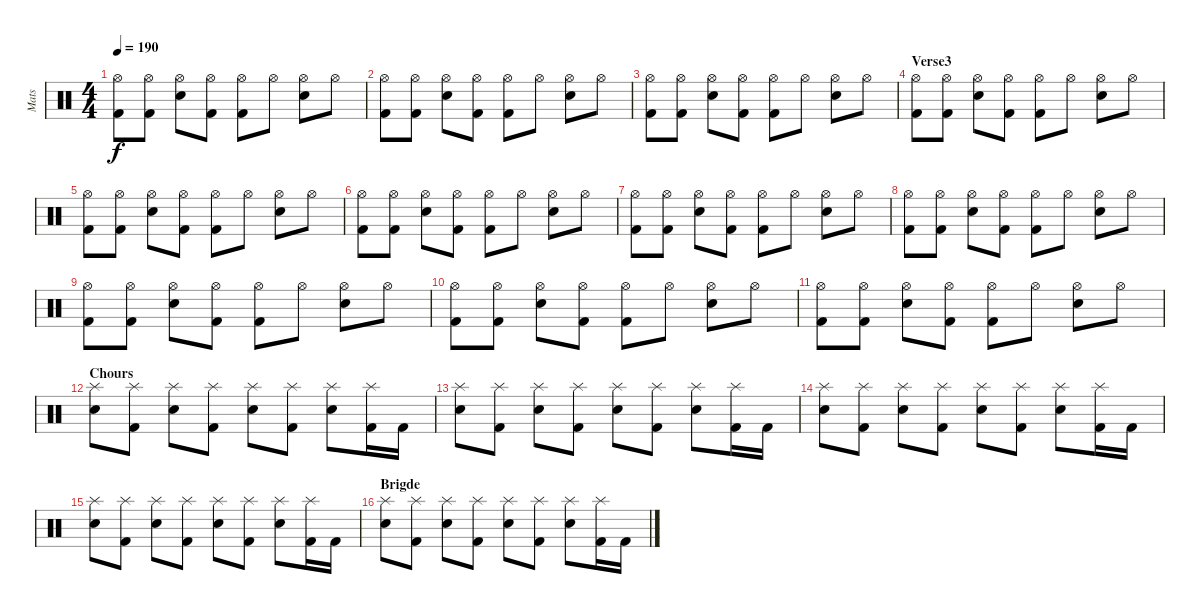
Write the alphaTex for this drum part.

\track ("Mats" "Mats") {instrument percussion}
\staff {score}
\articulation defaults
\ts (4 4)
\tempo 190
\clef neutral
\ks c
("Hi-Hat (open)" "Kick (hit) 2").8{dy f} ("Hi-Hat (open)" "Kick (hit) 2").8 ("Hi-Hat (open)" "Snare (hit) 2").8 ("Hi-Hat (open)" "Kick (hit) 2").8 ("Hi-Hat (open)" "Kick (hit) 2").8 "Hi-Hat (open)".8 ("Hi-Hat (open)" "Snare (hit) 2").8 "Hi-Hat (open)".8 |
("Hi-Hat (open)" "Kick (hit) 2").8 ("Hi-Hat (open)" "Kick (hit) 2").8 ("Hi-Hat (open)" "Snare (hit) 2").8 ("Hi-Hat (open)" "Kick (hit) 2").8 ("Hi-Hat (open)" "Kick (hit) 2").8 "Hi-Hat (open)".8 ("Hi-Hat (open)" "Snare (hit) 2").8 "Hi-Hat (open)".8 |
("Hi-Hat (open)" "Kick (hit) 2").8 ("Hi-Hat (open)" "Kick (hit) 2").8 ("Hi-Hat (open)" "Snare (hit) 2").8 ("Hi-Hat (open)" "Kick (hit) 2").8 ("Hi-Hat (open)" "Kick (hit) 2").8 "Hi-Hat (open)".8 ("Hi-Hat (open)" "Snare (hit) 2").8 "Hi-Hat (open)".8 |
\section ("" "Verse3")
("Hi-Hat (open)" "Kick (hit) 2").8 ("Hi-Hat (open)" "Kick (hit) 2").8 ("Hi-Hat (open)" "Snare (hit) 2").8 ("Hi-Hat (open)" "Kick (hit) 2").8 ("Hi-Hat (open)" "Kick (hit) 2").8 "Hi-Hat (open)".8 ("Hi-Hat (open)" "Snare (hit) 2").8 "Hi-Hat (open)".8 |
("Hi-Hat (open)" "Kick (hit) 2").8 ("Hi-Hat (open)" "Kick (hit) 2").8 ("Hi-Hat (open)" "Snare (hit) 2").8 ("Hi-Hat (open)" "Kick (hit) 2").8 ("Hi-Hat (open)" "Kick (hit) 2").8 "Hi-Hat (open)".8 ("Hi-Hat (open)" "Snare (hit) 2").8 "Hi-Hat (open)".8 |
("Hi-Hat (open)" "Kick (hit) 2").8 ("Hi-Hat (open)" "Kick (hit) 2").8 ("Hi-Hat (open)" "Snare (hit) 2").8 ("Hi-Hat (open)" "Kick (hit) 2").8 ("Hi-Hat (open)" "Kick (hit) 2").8 "Hi-Hat (open)".8 ("Hi-Hat (open)" "Snare (hit) 2").8 "Hi-Hat (open)".8 |
("Hi-Hat (open)" "Kick (hit) 2").8 ("Hi-Hat (open)" "Kick (hit) 2").8 ("Hi-Hat (open)" "Snare (hit) 2").8 ("Hi-Hat (open)" "Kick (hit) 2").8 ("Hi-Hat (open)" "Kick (hit) 2").8 "Hi-Hat (open)".8 ("Hi-Hat (open)" "Snare (hit) 2").8 "Hi-Hat (open)".8 |
("Hi-Hat (open)" "Kick (hit) 2").8 ("Hi-Hat (open)" "Kick (hit) 2").8 ("Hi-Hat (open)" "Snare (hit) 2").8 ("Hi-Hat (open)" "Kick (hit) 2").8 ("Hi-Hat (open)" "Kick (hit) 2").8 "Hi-Hat (open)".8 ("Hi-Hat (open)" "Snare (hit) 2").8 "Hi-Hat (open)".8 |
("Hi-Hat (open)" "Kick (hit) 2").8 ("Hi-Hat (open)" "Kick (hit) 2").8 ("Hi-Hat (open)" "Snare (hit) 2").8 ("Hi-Hat (open)" "Kick (hit) 2").8 ("Hi-Hat (open)" "Kick (hit) 2").8 "Hi-Hat (open)".8 ("Hi-Hat (open)" "Snare (hit) 2").8 "Hi-Hat (open)".8 |
("Hi-Hat (open)" "Kick (hit) 2").8 ("Hi-Hat (open)" "Kick (hit) 2").8 ("Hi-Hat (open)" "Snare (hit) 2").8 ("Hi-Hat (open)" "Kick (hit) 2").8 ("Hi-Hat (open)" "Kick (hit) 2").8 "Hi-Hat (open)".8 ("Hi-Hat (open)" "Snare (hit) 2").8 "Hi-Hat (open)".8 |
("Hi-Hat (open)" "Kick (hit) 2").8 ("Hi-Hat (open)" "Kick (hit) 2").8 ("Hi-Hat (open)" "Snare (hit) 2").8 ("Hi-Hat (open)" "Kick (hit) 2").8 ("Hi-Hat (open)" "Kick (hit) 2").8 "Hi-Hat (open)".8 ("Hi-Hat (open)" "Snare (hit) 2").8 "Hi-Hat (open)".8 |
\section ("" "Chours")
("Splash (hit)" "Snare (hit) 2").8 ("Splash (hit)" "Kick (hit) 2").8 ("Splash (hit)" "Snare (hit) 2").8 ("Splash (hit)" "Kick (hit) 2").8 ("Splash (hit)" "Snare (hit) 2").8 ("Splash (hit)" "Kick (hit) 2").8 ("Splash (hit)" "Snare (hit) 2").8 ("Splash (hit)" "Kick (hit) 2").16 "Kick (hit) 2".16 |
("Splash (hit)" "Snare (hit) 2").8 ("Splash (hit)" "Kick (hit) 2").8 ("Splash (hit)" "Snare (hit) 2").8 ("Splash (hit)" "Kick (hit) 2").8 ("Splash (hit)" "Snare (hit) 2").8 ("Splash (hit)" "Kick (hit) 2").8 ("Splash (hit)" "Snare (hit) 2").8 ("Splash (hit)" "Kick (hit) 2").16 "Kick (hit) 2".16 |
("Splash (hit)" "Snare (hit) 2").8 ("Splash (hit)" "Kick (hit) 2").8 ("Splash (hit)" "Snare (hit) 2").8 ("Splash (hit)" "Kick (hit) 2").8 ("Splash (hit)" "Snare (hit) 2").8 ("Splash (hit)" "Kick (hit) 2").8 ("Splash (hit)" "Snare (hit) 2").8 ("Splash (hit)" "Kick (hit) 2").16 "Kick (hit) 2".16 |
("Splash (hit)" "Snare (hit) 2").8 ("Splash (hit)" "Kick (hit) 2").8 ("Splash (hit)" "Snare (hit) 2").8 ("Splash (hit)" "Kick (hit) 2").8 ("Splash (hit)" "Snare (hit) 2").8 ("Splash (hit)" "Kick (hit) 2").8 ("Splash (hit)" "Snare (hit) 2").8 ("Splash (hit)" "Kick (hit) 2").16 "Kick (hit) 2".16 |
\section ("" "Brigde")
("Splash (hit)" "Snare (hit) 2").8 ("Splash (hit)" "Kick (hit) 2").8 ("Splash (hit)" "Snare (hit) 2").8 ("Splash (hit)" "Kick (hit) 2").8 ("Splash (hit)" "Snare (hit) 2").8 ("Splash (hit)" "Kick (hit) 2").8 ("Splash (hit)" "Snare (hit) 2").8 ("Splash (hit)" "Kick (hit) 2").16 "Kick (hit) 2".16
